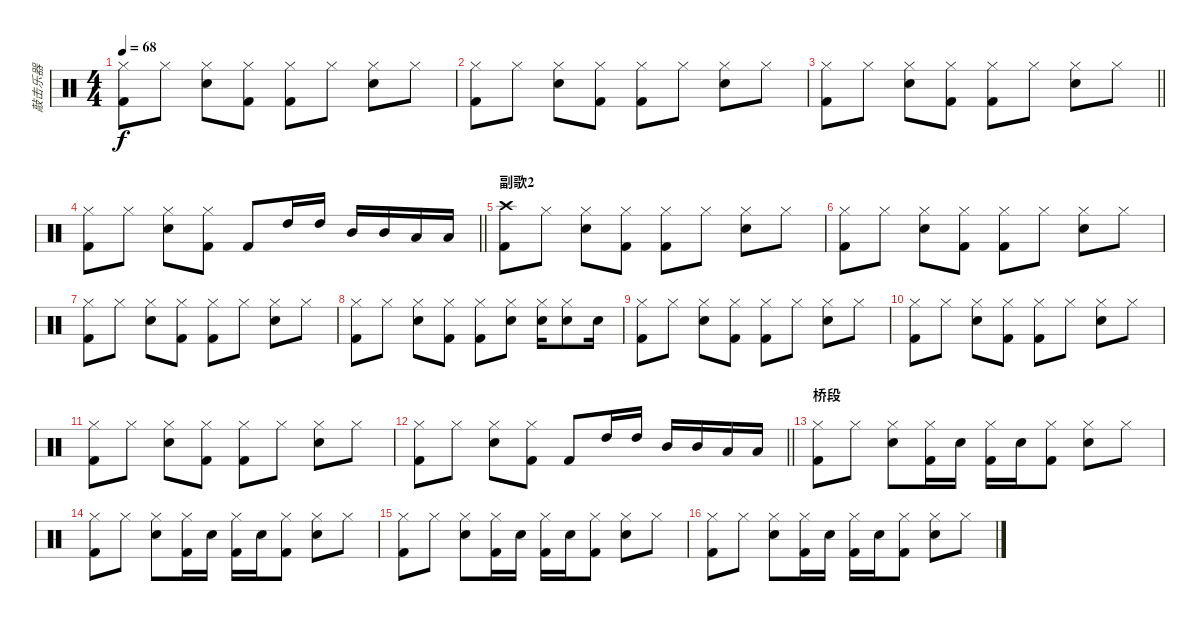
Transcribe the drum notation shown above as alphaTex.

\track ("敲击乐器" "敲击乐器") {instrument percussion}
\staff {score}
\articulation defaults
\ts (4 4)
\tempo 68
\clef neutral
\ks c
("Hi-Hat (closed)" "Kick (hit) 2").8{dy f} "Hi-Hat (closed)".8 ("Hi-Hat (closed)" "Snare (hit) 2").8 ("Hi-Hat (closed)" "Kick (hit) 2").8 ("Hi-Hat (closed)" "Kick (hit) 2").8 "Hi-Hat (closed)".8 ("Hi-Hat (closed)" "Snare (hit) 2").8 "Hi-Hat (closed)".8 |
("Hi-Hat (closed)" "Kick (hit) 2").8 "Hi-Hat (closed)".8 ("Hi-Hat (closed)" "Snare (hit) 2").8 ("Hi-Hat (closed)" "Kick (hit) 2").8 ("Hi-Hat (closed)" "Kick (hit) 2").8 "Hi-Hat (closed)".8 ("Hi-Hat (closed)" "Snare (hit) 2").8 "Hi-Hat (closed)".8 |
\barLineRight lightlight
("Hi-Hat (closed)" "Kick (hit) 2").8 "Hi-Hat (closed)".8 ("Hi-Hat (closed)" "Snare (hit) 2").8 ("Hi-Hat (closed)" "Kick (hit) 2").8 ("Hi-Hat (closed)" "Kick (hit) 2").8 "Hi-Hat (closed)".8 ("Hi-Hat (closed)" "Snare (hit) 2").8 "Hi-Hat (closed)".8 |
\barLineRight lightlight
("Hi-Hat (closed)" "Kick (hit) 2").8 "Hi-Hat (closed)".8 ("Hi-Hat (closed)" "Snare (hit) 2").8 ("Hi-Hat (closed)" "Kick (hit) 2").8 "Kick (hit) 2".8 "High Tom (hit)".16 "High Tom (hit)".16 "Mid Tom (hit)".16 "Mid Tom (hit)".16 "Low Tom (hit)".16 "Low Tom (hit)".16 |
\section ("" "副歌2")
("Crash high (hit)" "Kick (hit) 2").8 "Hi-Hat (closed)".8 ("Hi-Hat (closed)" "Snare (hit) 2").8 ("Hi-Hat (closed)" "Kick (hit) 2").8 ("Hi-Hat (closed)" "Kick (hit) 2").8 "Hi-Hat (closed)".8 ("Hi-Hat (closed)" "Snare (hit) 2").8 "Hi-Hat (closed)".8 |
("Hi-Hat (closed)" "Kick (hit) 2").8 "Hi-Hat (closed)".8 ("Hi-Hat (closed)" "Snare (hit) 2").8 ("Hi-Hat (closed)" "Kick (hit) 2").8 ("Hi-Hat (closed)" "Kick (hit) 2").8 "Hi-Hat (closed)".8 ("Hi-Hat (closed)" "Snare (hit) 2").8 "Hi-Hat (closed)".8 |
("Hi-Hat (closed)" "Kick (hit) 2").8 "Hi-Hat (closed)".8 ("Hi-Hat (closed)" "Snare (hit) 2").8 ("Hi-Hat (closed)" "Kick (hit) 2").8 ("Hi-Hat (closed)" "Kick (hit) 2").8 "Hi-Hat (closed)".8 ("Hi-Hat (closed)" "Snare (hit) 2").8 "Hi-Hat (closed)".8 |
("Hi-Hat (closed)" "Kick (hit) 2").8 "Hi-Hat (closed)".8 ("Hi-Hat (closed)" "Snare (hit) 2").8 ("Hi-Hat (closed)" "Kick (hit) 2").8 ("Hi-Hat (closed)" "Kick (hit) 2").8 ("Hi-Hat (closed)" "Snare (hit) 2").8 ("Hi-Hat (closed)" "Snare (hit) 2").16 ("Hi-Hat (closed)" "Snare (hit) 2").8 "Snare (hit) 2".16 |
("Hi-Hat (closed)" "Kick (hit) 2").8 "Hi-Hat (closed)".8 ("Hi-Hat (closed)" "Snare (hit) 2").8 ("Hi-Hat (closed)" "Kick (hit) 2").8 ("Hi-Hat (closed)" "Kick (hit) 2").8 "Hi-Hat (closed)".8 ("Hi-Hat (closed)" "Snare (hit) 2").8 "Hi-Hat (closed)".8 |
("Hi-Hat (closed)" "Kick (hit) 2").8 "Hi-Hat (closed)".8 ("Hi-Hat (closed)" "Snare (hit) 2").8 ("Hi-Hat (closed)" "Kick (hit) 2").8 ("Hi-Hat (closed)" "Kick (hit) 2").8 "Hi-Hat (closed)".8 ("Hi-Hat (closed)" "Snare (hit) 2").8 "Hi-Hat (closed)".8 |
("Hi-Hat (closed)" "Kick (hit) 2").8 "Hi-Hat (closed)".8 ("Hi-Hat (closed)" "Snare (hit) 2").8 ("Hi-Hat (closed)" "Kick (hit) 2").8 ("Hi-Hat (closed)" "Kick (hit) 2").8 "Hi-Hat (closed)".8 ("Hi-Hat (closed)" "Snare (hit) 2").8 "Hi-Hat (closed)".8 |
\barLineRight lightlight
("Hi-Hat (closed)" "Kick (hit) 2").8 "Hi-Hat (closed)".8 ("Hi-Hat (closed)" "Snare (hit) 2").8 ("Hi-Hat (closed)" "Kick (hit) 2").8 "Kick (hit) 2".8 "High Tom (hit)".16 "High Tom (hit)".16 "Mid Tom (hit)".16 "Mid Tom (hit)".16 "Low Tom (hit)".16 "Low Tom (hit)".16 |
\section ("" "桥段")
("Hi-Hat (closed)" "Kick (hit) 2").8 "Hi-Hat (closed)".8 ("Hi-Hat (closed)" "Snare (hit) 2").8 ("Hi-Hat (closed)" "Kick (hit) 2").16 "Snare (hit) 2".16 ("Hi-Hat (closed)" "Kick (hit) 2").16 "Snare (hit) 2".16 ("Hi-Hat (closed)" "Kick (hit) 2").8 ("Hi-Hat (closed)" "Snare (hit) 2").8 "Hi-Hat (closed)".8 |
("Hi-Hat (closed)" "Kick (hit) 2").8 "Hi-Hat (closed)".8 ("Hi-Hat (closed)" "Snare (hit) 2").8 ("Hi-Hat (closed)" "Kick (hit) 2").16 "Snare (hit) 2".16 ("Hi-Hat (closed)" "Kick (hit) 2").16 "Snare (hit) 2".16 ("Hi-Hat (closed)" "Kick (hit) 2").8 ("Hi-Hat (closed)" "Snare (hit) 2").8 "Hi-Hat (closed)".8 |
("Hi-Hat (closed)" "Kick (hit) 2").8 "Hi-Hat (closed)".8 ("Hi-Hat (closed)" "Snare (hit) 2").8 ("Hi-Hat (closed)" "Kick (hit) 2").16 "Snare (hit) 2".16 ("Hi-Hat (closed)" "Kick (hit) 2").16 "Snare (hit) 2".16 ("Hi-Hat (closed)" "Kick (hit) 2").8 ("Hi-Hat (closed)" "Snare (hit) 2").8 "Hi-Hat (closed)".8 |
("Hi-Hat (closed)" "Kick (hit) 2").8 "Hi-Hat (closed)".8 ("Hi-Hat (closed)" "Snare (hit) 2").8 ("Hi-Hat (closed)" "Kick (hit) 2").16 "Snare (hit) 2".16 ("Hi-Hat (closed)" "Kick (hit) 2").16 "Snare (hit) 2".16 ("Hi-Hat (closed)" "Kick (hit) 2").8 ("Hi-Hat (closed)" "Snare (hit) 2").8 "Hi-Hat (closed)".8
